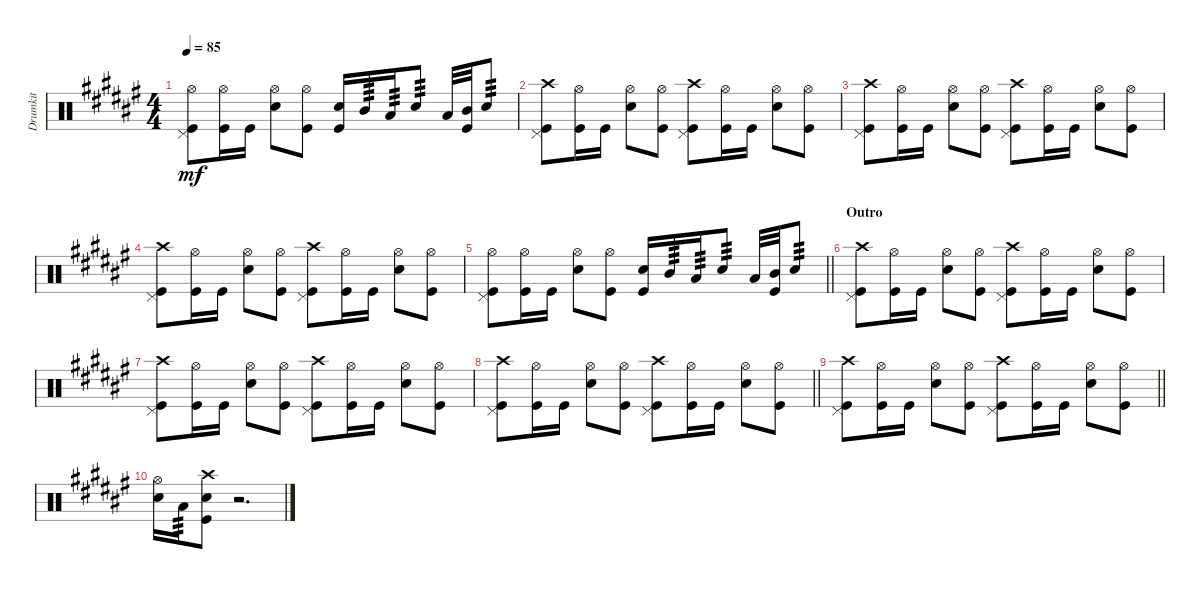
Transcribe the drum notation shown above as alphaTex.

\track ("Drumkit" "Drumkit") {instrument percussion}
\staff {score}
\articulation defaults
\ts (4 4)
\tempo 85
\clef neutral
\ks f#
("Kick (hit)" "Pedal Hi-Hat (hit)" "Hi-Hat (open)").8{dy mf} ("Kick (hit)" "Hi-Hat (open)").16 "Kick (hit)".16 ("Snare (hit) 2" "Hi-Hat (open)").8 ("Kick (hit)" "Hi-Hat (open)").8 ("Snare (hit) 2" "Kick (hit)").16 "Mid Tom (hit)".16{tp 3} "Low Tom (hit)".16{tp 3} "Snare (hit) 2".8{tp 3} "Low Tom (hit)".32 ("Kick (hit)" "Mid Tom (hit)").32 "Snare (hit) 2".8{tp 3} |
("Kick (hit)" "Pedal Hi-Hat (hit)" "Crash high (hit)").8 ("Kick (hit)" "Hi-Hat (open)").16 "Kick (hit)".16 ("Snare (hit) 2" "Hi-Hat (open)").8 ("Kick (hit)" "Hi-Hat (open)").8 ("Kick (hit)" "Pedal Hi-Hat (hit)" "Crash high (hit)").8 ("Kick (hit)" "Hi-Hat (open)").16 "Kick (hit)".16 ("Snare (hit) 2" "Hi-Hat (open)").8 ("Kick (hit)" "Hi-Hat (open)").8 |
("Kick (hit)" "Pedal Hi-Hat (hit)" "Crash high (hit)").8 ("Kick (hit)" "Hi-Hat (open)").16 "Kick (hit)".16 ("Snare (hit) 2" "Hi-Hat (open)").8 ("Kick (hit)" "Hi-Hat (open)").8 ("Kick (hit)" "Pedal Hi-Hat (hit)" "Crash high (hit)").8 ("Kick (hit)" "Hi-Hat (open)").16 "Kick (hit)".16 ("Snare (hit) 2" "Hi-Hat (open)").8 ("Kick (hit)" "Hi-Hat (open)").8 |
("Kick (hit)" "Pedal Hi-Hat (hit)" "Crash high (hit)").8 ("Kick (hit)" "Hi-Hat (open)").16 "Kick (hit)".16 ("Snare (hit) 2" "Hi-Hat (open)").8 ("Kick (hit)" "Hi-Hat (open)").8 ("Kick (hit)" "Pedal Hi-Hat (hit)" "Crash high (hit)").8 ("Kick (hit)" "Hi-Hat (open)").16 "Kick (hit)".16 ("Snare (hit) 2" "Hi-Hat (open)").8 ("Kick (hit)" "Hi-Hat (open)").8 |
\barLineRight lightlight
("Kick (hit)" "Pedal Hi-Hat (hit)" "Hi-Hat (open)").8 ("Kick (hit)" "Hi-Hat (open)").16 "Kick (hit)".16 ("Snare (hit) 2" "Hi-Hat (open)").8 ("Kick (hit)" "Hi-Hat (open)").8 ("Snare (hit) 2" "Kick (hit)").16 "Mid Tom (hit)".16{tp 3} "Low Tom (hit)".16{tp 3} "Snare (hit) 2".8{tp 3} "Low Tom (hit)".32 ("Kick (hit)" "Mid Tom (hit)").32 "Snare (hit) 2".8{tp 3} |
\section ("" "Outro")
("Kick (hit)" "Pedal Hi-Hat (hit)" "Crash high (hit)").8 ("Kick (hit)" "Hi-Hat (open)").16 "Kick (hit)".16 ("Snare (hit) 2" "Hi-Hat (open)").8 ("Kick (hit)" "Hi-Hat (open)").8 ("Kick (hit)" "Pedal Hi-Hat (hit)" "Crash high (hit)").8 ("Kick (hit)" "Hi-Hat (open)").16 "Kick (hit)".16 ("Snare (hit) 2" "Hi-Hat (open)").8 ("Kick (hit)" "Hi-Hat (open)").8 |
("Kick (hit)" "Pedal Hi-Hat (hit)" "Crash high (hit)").8 ("Kick (hit)" "Hi-Hat (open)").16 "Kick (hit)".16 ("Snare (hit) 2" "Hi-Hat (open)").8 ("Kick (hit)" "Hi-Hat (open)").8 ("Kick (hit)" "Pedal Hi-Hat (hit)" "Crash high (hit)").8 ("Kick (hit)" "Hi-Hat (open)").16 "Kick (hit)".16 ("Snare (hit) 2" "Hi-Hat (open)").8 ("Kick (hit)" "Hi-Hat (open)").8 |
\barLineRight lightlight
("Kick (hit)" "Pedal Hi-Hat (hit)" "Crash high (hit)").8 ("Kick (hit)" "Hi-Hat (open)").16 "Kick (hit)".16 ("Snare (hit) 2" "Hi-Hat (open)").8 ("Kick (hit)" "Hi-Hat (open)").8 ("Kick (hit)" "Pedal Hi-Hat (hit)" "Crash high (hit)").8 ("Kick (hit)" "Hi-Hat (open)").16 "Kick (hit)".16 ("Snare (hit) 2" "Hi-Hat (open)").8 ("Kick (hit)" "Hi-Hat (open)").8 |
\barLineRight lightlight
("Kick (hit)" "Pedal Hi-Hat (hit)" "Crash high (hit)").8 ("Kick (hit)" "Hi-Hat (open)").16 "Kick (hit)".16 ("Snare (hit) 2" "Hi-Hat (open)").8 ("Kick (hit)" "Hi-Hat (open)").8 ("Kick (hit)" "Pedal Hi-Hat (hit)" "Crash high (hit)").8 ("Kick (hit)" "Hi-Hat (open)").16 "Kick (hit)".16 ("Snare (hit) 2" "Hi-Hat (open)").8 ("Kick (hit)" "Hi-Hat (open)").8 |
("Snare (hit) 2" "Hi-Hat (open)").16 "Low Tom (hit)".16{tp 3} ("Snare (hit) 2" "Crash high (hit)" "Kick (hit)").8 r.2{d}
